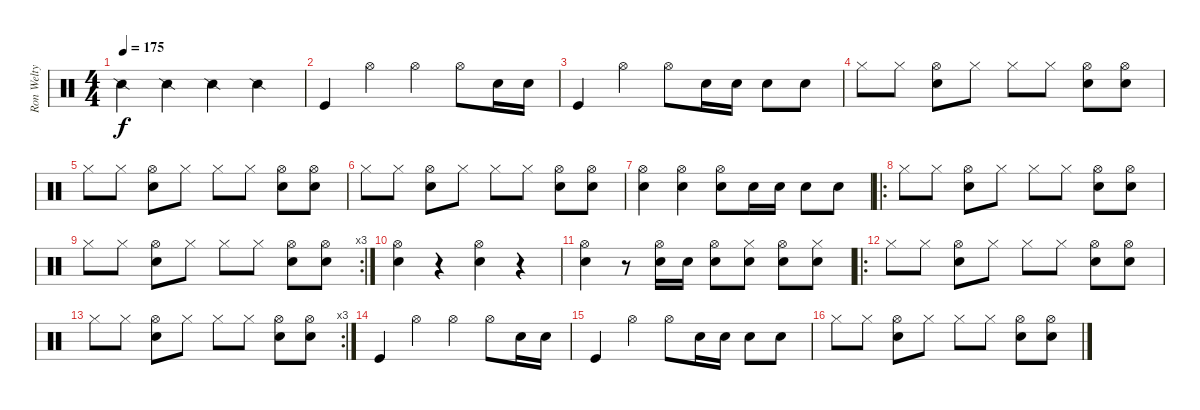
\track ("Ron Welty" "Ron Welty") {instrument percussion}
\staff {score}
\articulation defaults
\ts (4 4)
\tempo 175
\clef neutral
\ks c "Snare (side stick) 2".4{dy f} "Snare (side stick) 2".4 "Snare (side stick) 2".4 "Snare (side stick) 2".4
|
"Kick (hit)".4 "Hi-Hat (open)".4 "Hi-Hat (open)".4 "Hi-Hat (open)".8 "Snare (hit) 2".16 "Snare (hit) 2".16 |
"Kick (hit)".4 "Hi-Hat (open)".4 "Hi-Hat (open)".8 "Snare (hit) 2".16 "Snare (hit) 2".16 "Snare (hit) 2".8 "Snare (hit) 2".8 |
"Hi-Hat (closed)".8 "Hi-Hat (closed)".8 ("Snare (hit) 2" "Hi-Hat (open)").8 "Hi-Hat (closed)".8 "Hi-Hat (closed)".8 "Hi-Hat (closed)".8 ("Snare (hit) 2" "Hi-Hat (open)").8 ("Snare (hit) 2" "Hi-Hat (open)").8 |
"Hi-Hat (closed)".8 "Hi-Hat (closed)".8 ("Snare (hit) 2" "Hi-Hat (open)").8 "Hi-Hat (closed)".8 "Hi-Hat (closed)".8 "Hi-Hat (closed)".8 ("Snare (hit) 2" "Hi-Hat (open)").8 ("Snare (hit) 2" "Hi-Hat (open)").8 |
"Hi-Hat (closed)".8 "Hi-Hat (closed)".8 ("Snare (hit) 2" "Hi-Hat (open)").8 "Hi-Hat (closed)".8 "Hi-Hat (closed)".8 "Hi-Hat (closed)".8 ("Snare (hit) 2" "Hi-Hat (open)").8 ("Snare (hit) 2" "Hi-Hat (open)").8 |
("Hi-Hat (open)" "Snare (hit) 2").4 ("Hi-Hat (open)" "Snare (hit) 2").4 ("Hi-Hat (open)" "Snare (hit) 2").8 "Snare (hit) 2".16 "Snare (hit) 2".16 "Snare (hit) 2".8 "Snare (hit) 2".8 |
\ro "Hi-Hat (closed)".8 "Hi-Hat (closed)".8
("Snare (hit) 2" "Hi-Hat (open)").8 "Hi-Hat (closed)".8 "Hi-Hat (closed)".8 "Hi-Hat (closed)".8 ("Snare (hit) 2" "Hi-Hat (open)").8 ("Snare (hit) 2" "Hi-Hat (open)").8 |
\rc 3 "Hi-Hat (closed)".8 "Hi-Hat (closed)".8
("Snare (hit) 2" "Hi-Hat (open)").8 "Hi-Hat (closed)".8 "Hi-Hat (closed)".8 "Hi-Hat (closed)".8 ("Snare (hit) 2" "Hi-Hat (open)").8 ("Snare (hit) 2" "Hi-Hat (open)").8 |
("Snare (hit) 2" "Hi-Hat (open)").4 r.4 ("Snare (hit) 2" "Hi-Hat (open)").4 r.4 |
("Snare (hit) 2" "Hi-Hat (open)").4 r.8 ("Snare (hit) 2" "Hi-Hat (open)").16 "Snare (hit) 2".16 ("Snare (hit) 2" "Hi-Hat (open)").8 ("Snare (hit) 2" "Hi-Hat (closed)").8 ("Snare (hit) 2" "Hi-Hat (open)").8 ("Snare (hit) 2" "Hi-Hat (closed)").8 |
\ro "Hi-Hat (closed)".8 "Hi-Hat (closed)".8
("Snare (hit) 2" "Hi-Hat (open)").8 "Hi-Hat (closed)".8 "Hi-Hat (closed)".8 "Hi-Hat (closed)".8 ("Snare (hit) 2" "Hi-Hat (open)").8 ("Snare (hit) 2" "Hi-Hat (open)").8 |
\rc 3 "Hi-Hat (closed)".8 "Hi-Hat (closed)".8
("Snare (hit) 2" "Hi-Hat (open)").8 "Hi-Hat (closed)".8 "Hi-Hat (closed)".8 "Hi-Hat (closed)".8 ("Snare (hit) 2" "Hi-Hat (open)").8 ("Snare (hit) 2" "Hi-Hat (open)").8 |
"Kick (hit)".4 "Hi-Hat (open)".4 "Hi-Hat (open)".4 "Hi-Hat (open)".8 "Snare (hit) 2".16 "Snare (hit) 2".16 |
"Kick (hit)".4 "Hi-Hat (open)".4 "Hi-Hat (open)".8 "Snare (hit) 2".16 "Snare (hit) 2".16 "Snare (hit) 2".8 "Snare (hit) 2".8 |
"Hi-Hat (closed)".8 "Hi-Hat (closed)".8 ("Snare (hit) 2" "Hi-Hat (open)").8 "Hi-Hat (closed)".8 "Hi-Hat (closed)".8 "Hi-Hat (closed)".8 ("Snare (hit) 2" "Hi-Hat (open)").8 ("Snare (hit) 2" "Hi-Hat (open)").8
